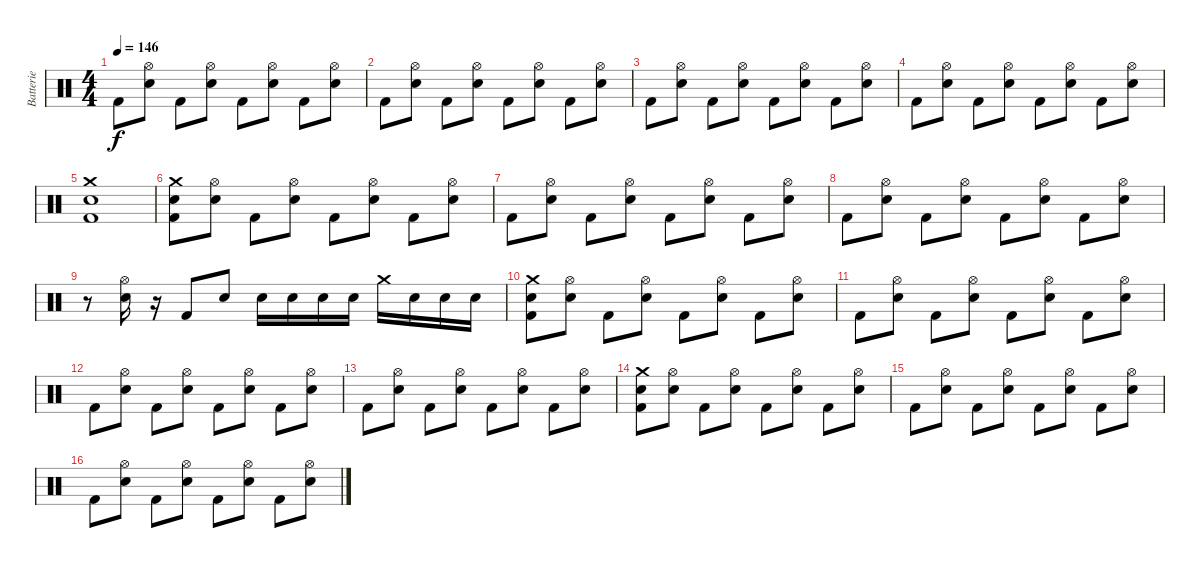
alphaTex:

\track ("Batterie" "Batterie") {instrument percussion}
\staff {score}
\articulation defaults
\ts (4 4)
\tempo 146
\clef neutral
\ks c "Kick (hit) 2".8{dy f}
("Electric Snare (hit)" "Hi-Hat (open)").8 "Kick (hit) 2".8 ("Electric Snare (hit)" "Hi-Hat (open)").8 "Kick (hit) 2".8 ("Electric Snare (hit)" "Hi-Hat (open)").8 "Kick (hit) 2".8 ("Electric Snare (hit)" "Hi-Hat (open)").8 |
"Kick (hit) 2".8 ("Electric Snare (hit)" "Hi-Hat (open)").8 "Kick (hit) 2".8 ("Electric Snare (hit)" "Hi-Hat (open)").8 "Kick (hit) 2".8 ("Electric Snare (hit)" "Hi-Hat (open)").8 "Kick (hit) 2".8 ("Electric Snare (hit)" "Hi-Hat (open)").8 |
"Kick (hit) 2".8 ("Electric Snare (hit)" "Hi-Hat (open)").8 "Kick (hit) 2".8 ("Electric Snare (hit)" "Hi-Hat (open)").8 "Kick (hit) 2".8 ("Electric Snare (hit)" "Hi-Hat (open)").8 "Kick (hit) 2".8 ("Electric Snare (hit)" "Hi-Hat (open)").8 |
"Kick (hit) 2".8 ("Electric Snare (hit)" "Hi-Hat (open)").8 "Kick (hit) 2".8 ("Electric Snare (hit)" "Hi-Hat (open)").8 "Kick (hit) 2".8 ("Electric Snare (hit)" "Hi-Hat (open)").8 "Kick (hit) 2".8 ("Electric Snare (hit)" "Hi-Hat (open)").8 |
("Kick (hit) 2" "Crash medium (hit)" "Electric Snare (hit)").1 |
("Kick (hit) 2" "Electric Snare (hit)" "Crash medium (hit)").8 ("Electric Snare (hit)" "Hi-Hat (open)").8 "Kick (hit) 2".8 ("Electric Snare (hit)" "Hi-Hat (open)").8 "Kick (hit) 2".8 ("Electric Snare (hit)" "Hi-Hat (open)").8 "Kick (hit) 2".8 ("Electric Snare (hit)" "Hi-Hat (open)").8 |
"Kick (hit) 2".8 ("Electric Snare (hit)" "Hi-Hat (open)").8 "Kick (hit) 2".8 ("Electric Snare (hit)" "Hi-Hat (open)").8 "Kick (hit) 2".8 ("Electric Snare (hit)" "Hi-Hat (open)").8 "Kick (hit) 2".8 ("Electric Snare (hit)" "Hi-Hat (open)").8 |
"Kick (hit) 2".8 ("Electric Snare (hit)" "Hi-Hat (open)").8 "Kick (hit) 2".8 ("Electric Snare (hit)" "Hi-Hat (open)").8 "Kick (hit) 2".8 ("Electric Snare (hit)" "Hi-Hat (open)").8 "Kick (hit) 2".8 ("Electric Snare (hit)" "Hi-Hat (open)").8 |
r.8 ("Hi-Hat (open)" "Electric Snare (hit)").16 r.16 "Kick (hit) 2".8 "Electric Snare (hit)".8 "Electric Snare (hit)".16 "Electric Snare (hit)".16 "Electric Snare (hit)".16 "Electric Snare (hit)".16 "Crash medium (hit)".16 "Electric Snare (hit)".16 "Electric Snare (hit)".16 "Electric Snare (hit)".16 |
("Kick (hit) 2" "Electric Snare (hit)" "Crash medium (hit)").8 ("Electric Snare (hit)" "Hi-Hat (open)").8 "Kick (hit) 2".8 ("Electric Snare (hit)" "Hi-Hat (open)").8 "Kick (hit) 2".8 ("Electric Snare (hit)" "Hi-Hat (open)").8 "Kick (hit) 2".8 ("Electric Snare (hit)" "Hi-Hat (open)").8 |
"Kick (hit) 2".8 ("Electric Snare (hit)" "Hi-Hat (open)").8 "Kick (hit) 2".8 ("Electric Snare (hit)" "Hi-Hat (open)").8 "Kick (hit) 2".8 ("Electric Snare (hit)" "Hi-Hat (open)").8 "Kick (hit) 2".8 ("Electric Snare (hit)" "Hi-Hat (open)").8 |
"Kick (hit) 2".8 ("Electric Snare (hit)" "Hi-Hat (open)").8 "Kick (hit) 2".8 ("Electric Snare (hit)" "Hi-Hat (open)").8 "Kick (hit) 2".8 ("Electric Snare (hit)" "Hi-Hat (open)").8 "Kick (hit) 2".8 ("Electric Snare (hit)" "Hi-Hat (open)").8 |
"Kick (hit) 2".8 ("Electric Snare (hit)" "Hi-Hat (open)").8 "Kick (hit) 2".8 ("Electric Snare (hit)" "Hi-Hat (open)").8 "Kick (hit) 2".8 ("Electric Snare (hit)" "Hi-Hat (open)").8 "Kick (hit) 2".8 ("Electric Snare (hit)" "Hi-Hat (open)").8 |
("Kick (hit) 2" "Electric Snare (hit)" "Crash medium (hit)").8 ("Electric Snare (hit)" "Hi-Hat (open)").8 "Kick (hit) 2".8 ("Electric Snare (hit)" "Hi-Hat (open)").8 "Kick (hit) 2".8 ("Electric Snare (hit)" "Hi-Hat (open)").8 "Kick (hit) 2".8 ("Electric Snare (hit)" "Hi-Hat (open)").8 |
"Kick (hit) 2".8 ("Electric Snare (hit)" "Hi-Hat (open)").8 "Kick (hit) 2".8 ("Electric Snare (hit)" "Hi-Hat (open)").8 "Kick (hit) 2".8 ("Electric Snare (hit)" "Hi-Hat (open)").8 "Kick (hit) 2".8 ("Electric Snare (hit)" "Hi-Hat (open)").8 |
"Kick (hit) 2".8 ("Electric Snare (hit)" "Hi-Hat (open)").8 "Kick (hit) 2".8 ("Electric Snare (hit)" "Hi-Hat (open)").8 "Kick (hit) 2".8 ("Electric Snare (hit)" "Hi-Hat (open)").8 "Kick (hit) 2".8 ("Electric Snare (hit)" "Hi-Hat (open)").8
